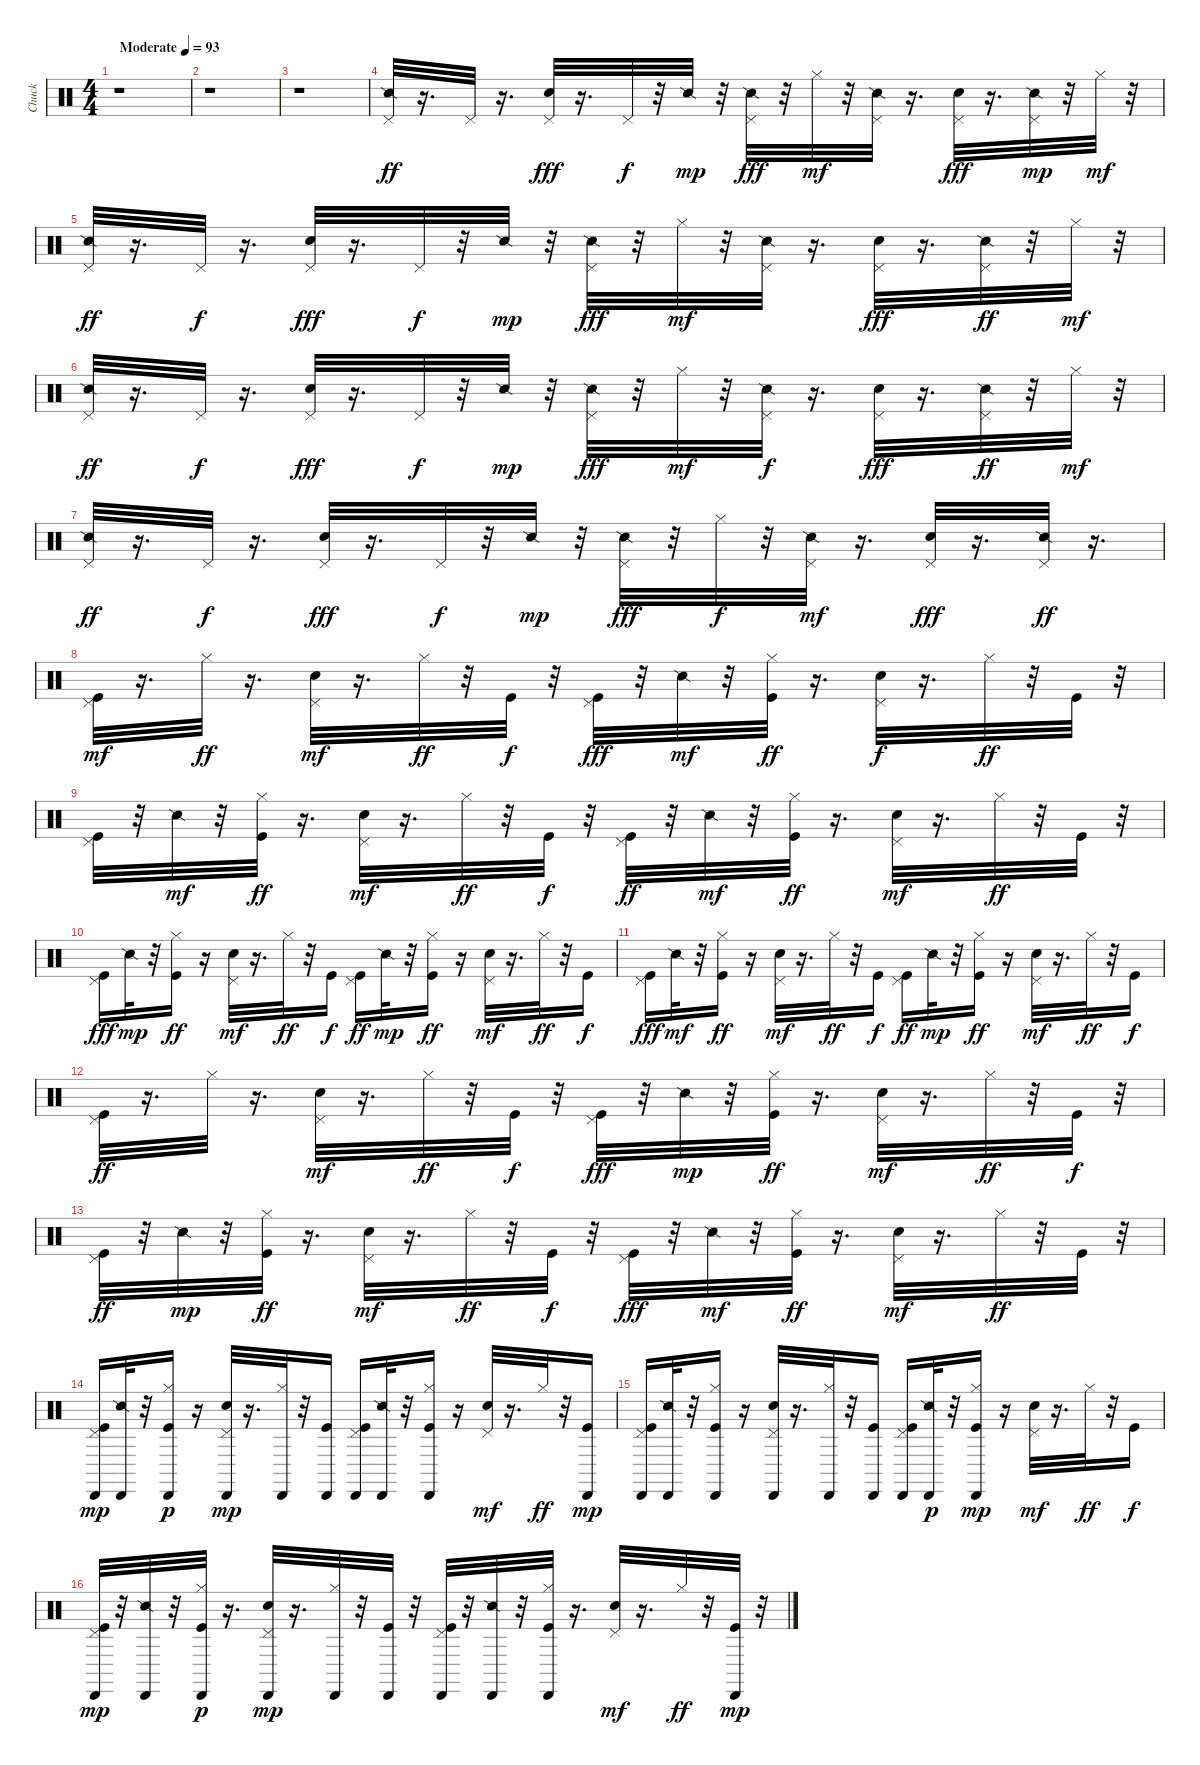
\track ("Chuck" "Chuck") {instrument percussion}
\staff {score}
\articulation defaults
\ts (4 4)
\tempo (93 "Moderate")
\clef neutral
\ks c
r.1{dy ff} |
r.1 |
r.1 |
("Snare (side stick) 2" "Pedal Hi-Hat (hit)").32 r.16{d} "Pedal Hi-Hat (hit)".32 r.16{d} ("Snare (hit) 2" "Pedal Hi-Hat (hit)").32{dy fff} r.16{d} "Pedal Hi-Hat (hit)".32{dy f} r.32 "Snare (side stick) 2".32{dy mp} r.32 ("Snare (side stick) 2" "Pedal Hi-Hat (hit)").32{dy fff} r.32 "Hi-Hat (closed)".32{dy mf} r.32 ("Snare (side stick) 2" "Pedal Hi-Hat (hit)").32 r.16{d} ("Snare (hit) 2" "Pedal Hi-Hat (hit)").32{dy fff} r.16{d} ("Snare (side stick) 2" "Pedal Hi-Hat (hit)").32{dy mp} r.32 "Hi-Hat (closed)".32{dy mf} r.32 |
("Snare (side stick) 2" "Pedal Hi-Hat (hit)").32{dy ff} r.16{d} "Pedal Hi-Hat (hit)".32{dy f} r.16{d} ("Snare (hit) 2" "Pedal Hi-Hat (hit)").32{dy fff} r.16{d} "Pedal Hi-Hat (hit)".32{dy f} r.32 "Snare (side stick) 2".32{dy mp} r.32 ("Snare (side stick) 2" "Pedal Hi-Hat (hit)").32{dy fff} r.32 "Hi-Hat (closed)".32{dy mf} r.32 ("Snare (side stick) 2" "Pedal Hi-Hat (hit)").32 r.16{d} ("Snare (hit) 2" "Pedal Hi-Hat (hit)").32{dy fff} r.16{d} ("Snare (side stick) 2" "Pedal Hi-Hat (hit)").32{dy ff} r.32 "Hi-Hat (closed)".32{dy mf} r.32 |
("Snare (side stick) 2" "Pedal Hi-Hat (hit)").32{dy ff} r.16{d} "Pedal Hi-Hat (hit)".32{dy f} r.16{d} ("Snare (hit) 2" "Pedal Hi-Hat (hit)").32{dy fff} r.16{d} "Pedal Hi-Hat (hit)".32{dy f} r.32 "Snare (side stick) 2".32{dy mp} r.32 ("Snare (side stick) 2" "Pedal Hi-Hat (hit)").32{dy fff} r.32 "Hi-Hat (closed)".32{dy mf} r.32 ("Snare (side stick) 2" "Pedal Hi-Hat (hit)").32{dy f} r.16{d} ("Snare (hit) 2" "Pedal Hi-Hat (hit)").32{dy fff} r.16{d} ("Snare (side stick) 2" "Pedal Hi-Hat (hit)").32{dy ff} r.32 "Hi-Hat (closed)".32{dy mf} r.32 |
("Snare (side stick) 2" "Pedal Hi-Hat (hit)").32{dy ff} r.16{d} "Pedal Hi-Hat (hit)".32{dy f volume 14} r.16{d} ("Snare (hit) 2" "Pedal Hi-Hat (hit)").32{dy fff volume 12} r.16{d} "Pedal Hi-Hat (hit)".32{dy f volume 10} r.32 "Snare (side stick) 2".32{dy mp volume 9} r.32 ("Snare (side stick) 2" "Pedal Hi-Hat (hit)").32{dy fff volume 8} r.32 "Hi-Hat (closed)".32{dy f volume 7} r.32 ("Snare (side stick) 2" "Pedal Hi-Hat (hit)").32{dy mf volume 6} r.16{d} ("Snare (hit) 2" "Pedal Hi-Hat (hit)").32{dy fff volume 4} r.16{d} ("Snare (side stick) 2" "Pedal Hi-Hat (hit)").32{dy ff volume 2} r.16{d} |
("Kick (hit)" "Pedal Hi-Hat (hit)").32{dy mf volume 16} r.16{d} "Hi-Hat (closed)".32{dy ff} r.16{d} ("Electric Snare (hit)" "Pedal Hi-Hat (hit)").32{dy mf} r.16{d} "Hi-Hat (closed)".32{dy ff} r.32 "Kick (hit)".32{dy f} r.32 ("Kick (hit)" "Pedal Hi-Hat (hit)").32{dy fff} r.32 "Snare (side stick) 2".32{dy mf} r.32 ("Kick (hit)" "Hi-Hat (closed)").32{dy ff} r.16{d} ("Electric Snare (hit)" "Pedal Hi-Hat (hit)").32{dy f} r.16{d} "Hi-Hat (closed)".32{dy ff} r.32 "Kick (hit)".32 r.32 |
("Kick (hit)" "Pedal Hi-Hat (hit)").32 r.32 "Snare (side stick) 2".32{dy mf} r.32 ("Kick (hit)" "Hi-Hat (closed)").32{dy ff} r.16{d} ("Electric Snare (hit)" "Pedal Hi-Hat (hit)").32{dy mf} r.16{d} "Hi-Hat (closed)".32{dy ff} r.32 "Kick (hit)".32{dy f} r.32 ("Kick (hit)" "Pedal Hi-Hat (hit)").32{dy ff} r.32 "Snare (side stick) 2".32{dy mf} r.32 ("Kick (hit)" "Hi-Hat (closed)").32{dy ff} r.16{d} ("Electric Snare (hit)" "Pedal Hi-Hat (hit)").32{dy mf} r.16{d} "Hi-Hat (closed)".32{dy ff} r.32 "Kick (hit)".32 r.32 |
("Kick (hit)" "Pedal Hi-Hat (hit)").16{dy fff} "Snare (side stick) 2".32{dy mp} r.32 ("Kick (hit)" "Hi-Hat (closed)").16{dy ff} r.16 ("Electric Snare (hit)" "Pedal Hi-Hat (hit)").32{dy mf} r.16{d} "Hi-Hat (closed)".32{dy ff} r.32 "Kick (hit)".16{dy f} ("Kick (hit)" "Pedal Hi-Hat (hit)").16{dy ff} "Snare (side stick) 2".32{dy mp} r.32 ("Kick (hit)" "Hi-Hat (closed)").16{dy ff} r.16 ("Electric Snare (hit)" "Pedal Hi-Hat (hit)").32{dy mf} r.16{d} "Hi-Hat (closed)".32{dy ff} r.32 "Kick (hit)".16{dy f} |
("Kick (hit)" "Pedal Hi-Hat (hit)").16{dy fff} "Snare (side stick) 2".32{dy mf} r.32 ("Kick (hit)" "Hi-Hat (closed)").16{dy ff} r.16 ("Electric Snare (hit)" "Pedal Hi-Hat (hit)").32{dy mf} r.16{d} "Hi-Hat (closed)".32{dy ff} r.32 "Kick (hit)".16{dy f} ("Kick (hit)" "Pedal Hi-Hat (hit)").16{dy ff} "Snare (side stick) 2".32{dy mp} r.32 ("Kick (hit)" "Hi-Hat (closed)").16{dy ff} r.16 ("Electric Snare (hit)" "Pedal Hi-Hat (hit)").32{dy mf} r.16{d} "Hi-Hat (closed)".32{dy ff} r.32 "Kick (hit)".16{dy f} |
("Kick (hit)" "Pedal Hi-Hat (hit)").32{dy ff} r.16{d} "Hi-Hat (closed)".32 r.16{d} ("Electric Snare (hit)" "Pedal Hi-Hat (hit)").32{dy mf} r.16{d} "Hi-Hat (closed)".32{dy ff} r.32 "Kick (hit)".32{dy f} r.32 ("Kick (hit)" "Pedal Hi-Hat (hit)").32{dy fff} r.32 "Snare (side stick) 2".32{dy mp} r.32 ("Kick (hit)" "Hi-Hat (closed)").32{dy ff} r.16{d} ("Electric Snare (hit)" "Pedal Hi-Hat (hit)").32{dy mf} r.16{d} "Hi-Hat (closed)".32{dy ff} r.32 "Kick (hit)".32{dy f} r.32 |
("Kick (hit)" "Pedal Hi-Hat (hit)").32{dy ff} r.32 "Snare (side stick) 2".32{dy mp} r.32 ("Kick (hit)" "Hi-Hat (closed)").32{dy ff} r.16{d} ("Electric Snare (hit)" "Pedal Hi-Hat (hit)").32{dy mf} r.16{d} "Hi-Hat (closed)".32{dy ff} r.32 "Kick (hit)".32{dy f} r.32 ("Kick (hit)" "Pedal Hi-Hat (hit)").32{dy fff} r.32 "Snare (side stick) 2".32{dy mf} r.32 ("Kick (hit)" "Hi-Hat (closed)").32{dy ff} r.16{d} ("Electric Snare (hit)" "Pedal Hi-Hat (hit)").32{dy mf} r.16{d} "Hi-Hat (closed)".32{dy ff} r.32 "Kick (hit)".32 r.32 |
("Kick (hit)" "Pedal Hi-Hat (hit)" "Cabasa (hit)").16{dy mp} ("Snare (side stick) 2" "Cabasa (hit)").32 r.32 ("Kick (hit)" "Hi-Hat (closed)" "Cabasa (hit)").16{dy p} r.16 ("Electric Snare (hit)" "Pedal Hi-Hat (hit)" "Cabasa (hit)").32{dy mp} r.16{d} ("Hi-Hat (closed)" "Cabasa (hit)").32 r.32 ("Kick (hit)" "Cabasa (hit)").16 ("Kick (hit)" "Pedal Hi-Hat (hit)" "Cabasa (hit)").16 ("Snare (side stick) 2" "Cabasa (hit)").32 r.32 ("Kick (hit)" "Hi-Hat (closed)" "Cabasa (hit)").16 r.16 ("Electric Snare (hit)" "Pedal Hi-Hat (hit)").32{dy mf} r.16{d} "Hi-Hat (closed)".32{dy ff} r.32 ("Kick (hit)" "Cabasa (hit)").16{dy mp} |
("Kick (hit)" "Pedal Hi-Hat (hit)" "Cabasa (hit)").16 ("Snare (side stick) 2" "Cabasa (hit)").32 r.32 ("Kick (hit)" "Hi-Hat (closed)" "Cabasa (hit)").16 r.16 ("Electric Snare (hit)" "Pedal Hi-Hat (hit)" "Cabasa (hit)").32 r.16{d} ("Hi-Hat (closed)" "Cabasa (hit)").32 r.32 ("Kick (hit)" "Cabasa (hit)").16 ("Kick (hit)" "Pedal Hi-Hat (hit)" "Cabasa (hit)").16 ("Snare (side stick) 2" "Cabasa (hit)").32{dy p} r.32 ("Kick (hit)" "Hi-Hat (closed)" "Cabasa (hit)").16{dy mp} r.16 ("Electric Snare (hit)" "Pedal Hi-Hat (hit)").32{dy mf} r.16{d} "Hi-Hat (closed)".32{dy ff} r.32 "Kick (hit)".16{dy f} |
("Kick (hit)" "Pedal Hi-Hat (hit)" "Cabasa (hit)").32{dy mp} r.32 ("Snare (side stick) 2" "Cabasa (hit)").32 r.32 ("Kick (hit)" "Hi-Hat (closed)" "Cabasa (hit)").32{dy p} r.16{d} ("Electric Snare (hit)" "Pedal Hi-Hat (hit)" "Cabasa (hit)").32{dy mp} r.16{d} ("Hi-Hat (closed)" "Cabasa (hit)").32 r.32 ("Kick (hit)" "Cabasa (hit)").32 r.32 ("Kick (hit)" "Pedal Hi-Hat (hit)" "Cabasa (hit)").32 r.32 ("Snare (side stick) 2" "Cabasa (hit)").32 r.32 ("Kick (hit)" "Hi-Hat (closed)" "Cabasa (hit)").32 r.16{d} ("Electric Snare (hit)" "Pedal Hi-Hat (hit)").32{dy mf} r.16{d} "Hi-Hat (closed)".32{dy ff} r.32 ("Kick (hit)" "Cabasa (hit)").32{dy mp} r.32
